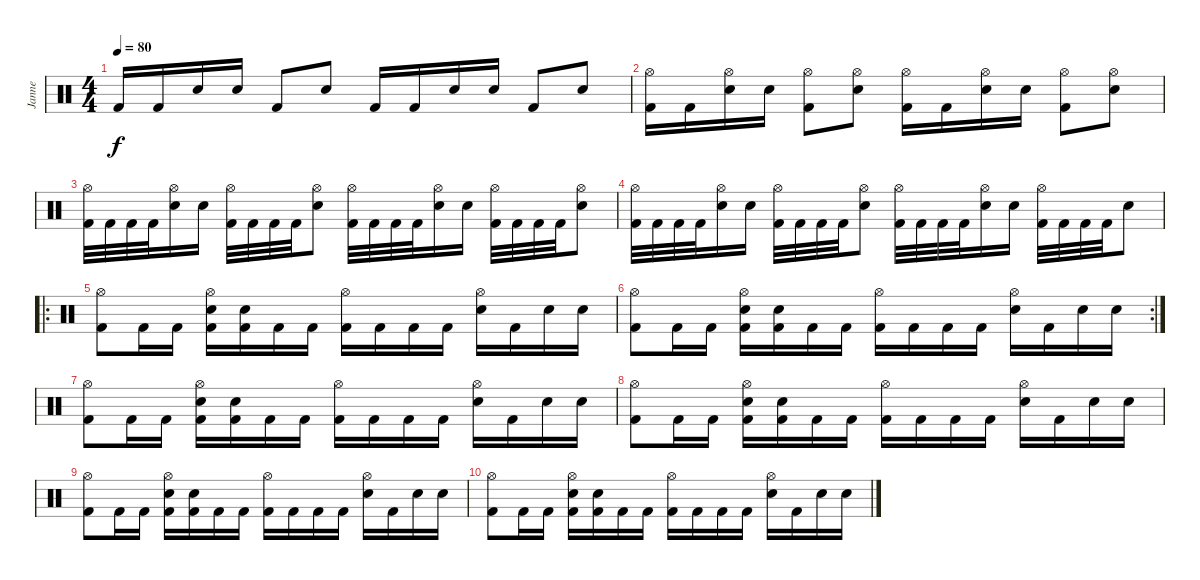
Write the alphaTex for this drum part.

\track ("Janne" "Janne") {instrument percussion}
\staff {score}
\articulation defaults
\ts (4 4)
\tempo 80
\clef neutral
\ks c "Kick (hit) 2".16{dy f} "Kick (hit) 2".16 "Electric Snare (hit)".16 "Electric Snare (hit)".16 "Kick (hit) 2".8 "Electric Snare (hit)".8 "Kick (hit) 2".16 "Kick (hit) 2".16 "Electric Snare (hit)".16 "Electric Snare (hit)".16 "Kick (hit) 2".8 "Electric Snare (hit)".8
|
("Hi-Hat (open)" "Kick (hit) 2").16 "Kick (hit) 2".16 ("Hi-Hat (open)" "Electric Snare (hit)").16 "Electric Snare (hit)".16 ("Hi-Hat (open)" "Kick (hit) 2").8 ("Hi-Hat (open)" "Electric Snare (hit)").8 ("Hi-Hat (open)" "Kick (hit) 2").16 "Kick (hit) 2".16 ("Hi-Hat (open)" "Electric Snare (hit)").16 "Electric Snare (hit)".16 ("Hi-Hat (open)" "Kick (hit) 2").8 ("Hi-Hat (open)" "Electric Snare (hit)").8 |
("Hi-Hat (open)" "Kick (hit) 2").32 "Kick (hit) 2".32 "Kick (hit) 2".32 "Kick (hit) 2".32 ("Hi-Hat (open)" "Electric Snare (hit)").16 "Electric Snare (hit)".16 ("Hi-Hat (open)" "Kick (hit) 2").32 "Kick (hit) 2".32 "Kick (hit) 2".32 "Kick (hit) 2".32 ("Hi-Hat (open)" "Electric Snare (hit)").8 ("Hi-Hat (open)" "Kick (hit) 2").32 "Kick (hit) 2".32 "Kick (hit) 2".32 "Kick (hit) 2".32 ("Hi-Hat (open)" "Electric Snare (hit)").16 "Electric Snare (hit)".16 ("Hi-Hat (open)" "Kick (hit) 2").32 "Kick (hit) 2".32 "Kick (hit) 2".32 "Kick (hit) 2".32 ("Hi-Hat (open)" "Electric Snare (hit)").8 |
("Hi-Hat (open)" "Kick (hit) 2").32 "Kick (hit) 2".32 "Kick (hit) 2".32 "Kick (hit) 2".32 ("Hi-Hat (open)" "Electric Snare (hit)").16 "Electric Snare (hit)".16 ("Hi-Hat (open)" "Kick (hit) 2").32 "Kick (hit) 2".32 "Kick (hit) 2".32 "Kick (hit) 2".32 ("Hi-Hat (open)" "Electric Snare (hit)").8 ("Hi-Hat (open)" "Kick (hit) 2").32 "Kick (hit) 2".32 "Kick (hit) 2".32 "Kick (hit) 2".32 ("Hi-Hat (open)" "Electric Snare (hit)").16 "Electric Snare (hit)".16 ("Hi-Hat (open)" "Kick (hit) 2").32 "Kick (hit) 2".32 "Kick (hit) 2".32 "Kick (hit) 2".32 "Electric Snare (hit)".8 |
\ro
("Hi-Hat (open)" "Kick (hit) 2").8 "Kick (hit) 2".16 "Kick (hit) 2".16 ("Hi-Hat (open)" "Electric Snare (hit)" "Kick (hit) 2").16 ("Electric Snare (hit)" "Kick (hit) 2").16 "Kick (hit) 2".16 "Kick (hit) 2".16 ("Hi-Hat (open)" "Kick (hit) 2").16 "Kick (hit) 2".16 "Kick (hit) 2".16 "Kick (hit) 2".16 ("Hi-Hat (open)" "Electric Snare (hit)").16 "Kick (hit) 2".16 "Electric Snare (hit)".16 "Electric Snare (hit)".16 |
\rc 2
("Hi-Hat (open)" "Kick (hit) 2").8 "Kick (hit) 2".16 "Kick (hit) 2".16 ("Hi-Hat (open)" "Electric Snare (hit)" "Kick (hit) 2").16 ("Electric Snare (hit)" "Kick (hit) 2").16 "Kick (hit) 2".16 "Kick (hit) 2".16 ("Hi-Hat (open)" "Kick (hit) 2").16 "Kick (hit) 2".16 "Kick (hit) 2".16 "Kick (hit) 2".16 ("Hi-Hat (open)" "Electric Snare (hit)").16 "Kick (hit) 2".16 "Electric Snare (hit)".16 "Electric Snare (hit)".16 |
("Hi-Hat (open)" "Kick (hit) 2").8 "Kick (hit) 2".16 "Kick (hit) 2".16 ("Hi-Hat (open)" "Electric Snare (hit)" "Kick (hit) 2").16 ("Electric Snare (hit)" "Kick (hit) 2").16 "Kick (hit) 2".16 "Kick (hit) 2".16 ("Hi-Hat (open)" "Kick (hit) 2").16 "Kick (hit) 2".16 "Kick (hit) 2".16 "Kick (hit) 2".16 ("Hi-Hat (open)" "Electric Snare (hit)").16 "Kick (hit) 2".16 "Electric Snare (hit)".16 "Electric Snare (hit)".16 |
("Hi-Hat (open)" "Kick (hit) 2").8 "Kick (hit) 2".16 "Kick (hit) 2".16 ("Hi-Hat (open)" "Electric Snare (hit)" "Kick (hit) 2").16 ("Electric Snare (hit)" "Kick (hit) 2").16 "Kick (hit) 2".16 "Kick (hit) 2".16 ("Hi-Hat (open)" "Kick (hit) 2").16 "Kick (hit) 2".16 "Kick (hit) 2".16 "Kick (hit) 2".16 ("Hi-Hat (open)" "Electric Snare (hit)").16 "Kick (hit) 2".16 "Electric Snare (hit)".16 "Electric Snare (hit)".16 |
("Hi-Hat (open)" "Kick (hit) 2").8 "Kick (hit) 2".16 "Kick (hit) 2".16 ("Hi-Hat (open)" "Electric Snare (hit)" "Kick (hit) 2").16 ("Electric Snare (hit)" "Kick (hit) 2").16 "Kick (hit) 2".16 "Kick (hit) 2".16 ("Hi-Hat (open)" "Kick (hit) 2").16 "Kick (hit) 2".16 "Kick (hit) 2".16 "Kick (hit) 2".16 ("Hi-Hat (open)" "Electric Snare (hit)").16 "Kick (hit) 2".16 "Electric Snare (hit)".16 "Electric Snare (hit)".16 |
("Hi-Hat (open)" "Kick (hit) 2").8 "Kick (hit) 2".16 "Kick (hit) 2".16 ("Hi-Hat (open)" "Electric Snare (hit)" "Kick (hit) 2").16 ("Electric Snare (hit)" "Kick (hit) 2").16 "Kick (hit) 2".16 "Kick (hit) 2".16 ("Hi-Hat (open)" "Kick (hit) 2").16 "Kick (hit) 2".16 "Kick (hit) 2".16 "Kick (hit) 2".16 ("Hi-Hat (open)" "Electric Snare (hit)").16 "Kick (hit) 2".16 "Electric Snare (hit)".16 "Electric Snare (hit)".16
